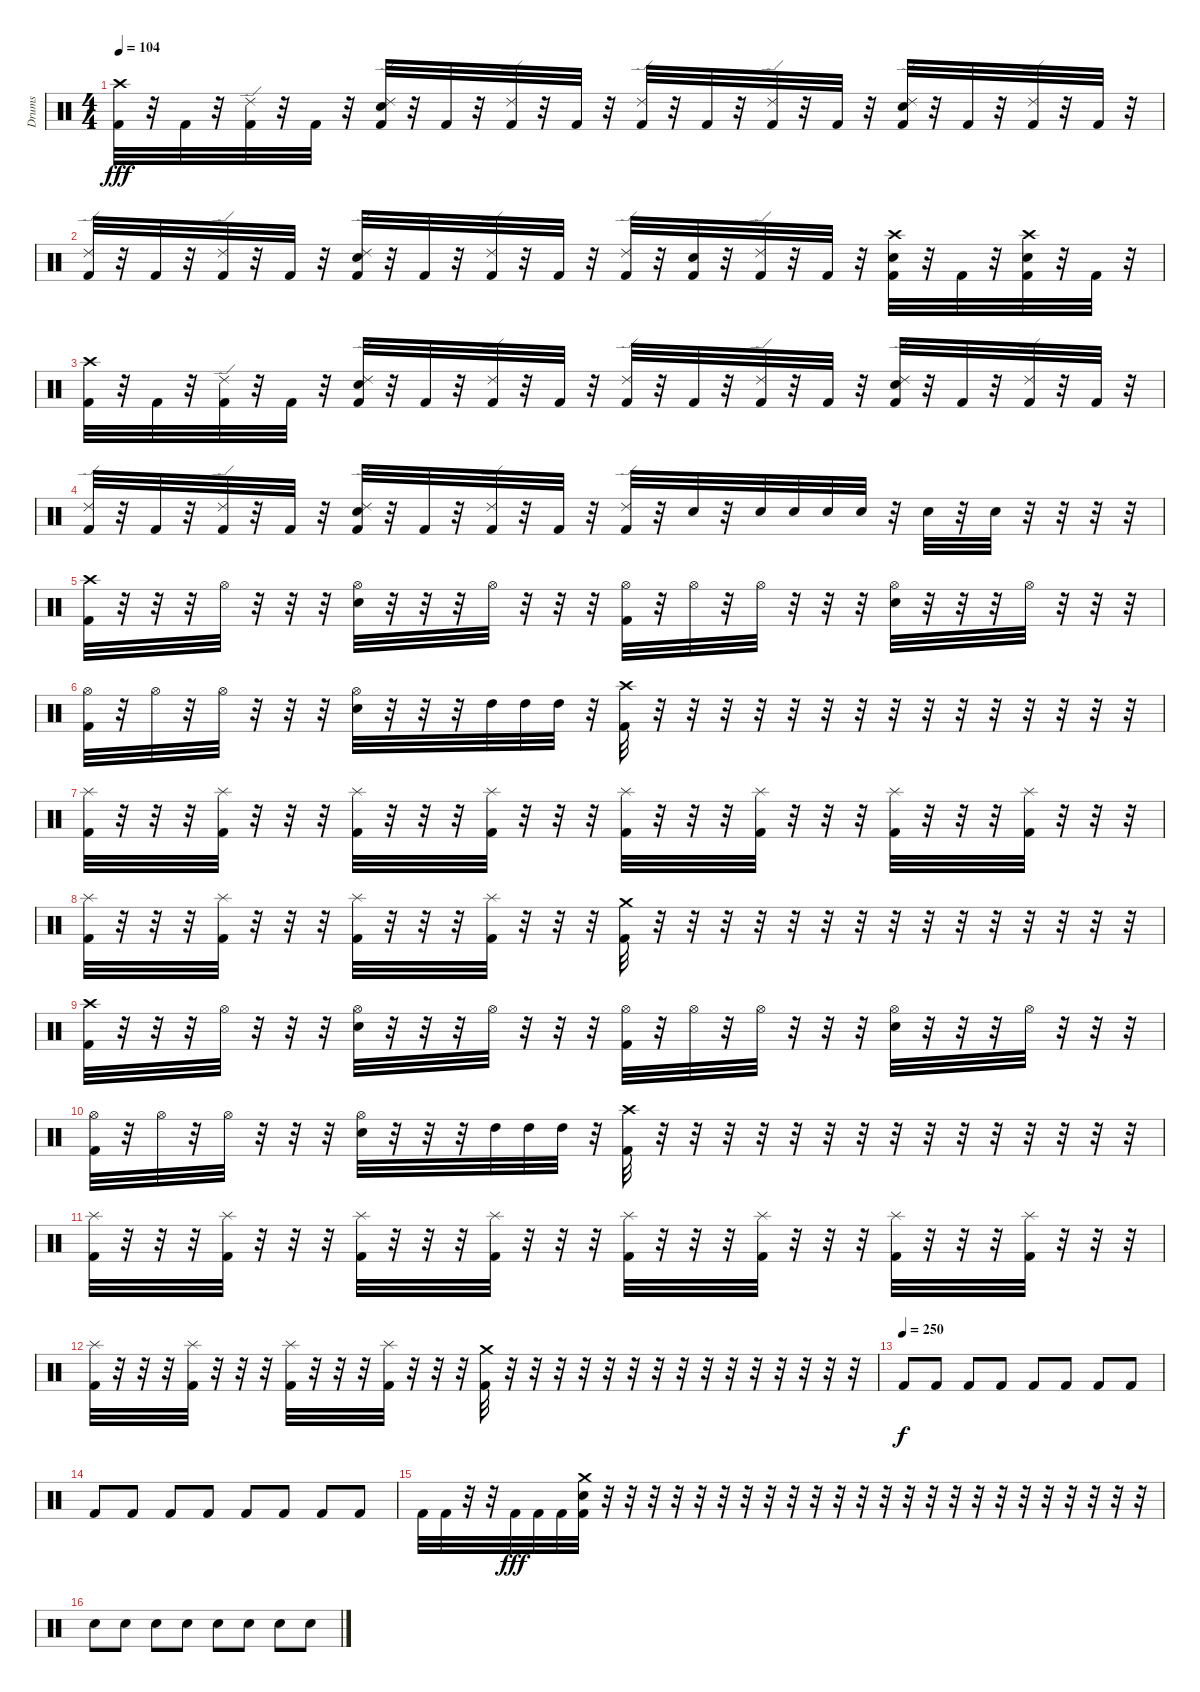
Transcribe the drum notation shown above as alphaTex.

\track ("Drums" "Drums") {instrument percussion}
\staff {score}
\articulation defaults
\ts (4 4)
\tempo 104
\clef neutral
\ks c
("Crash high (hit)" "Kick (hit) 2").32{dy fff} r.32 "Kick (hit) 2".32 r.32 ("Ride (edge) 2" "Kick (hit) 2").32 r.32 "Kick (hit) 2".32 r.32 ("Ride (edge) 2" "Snare (hit) 2" "Kick (hit) 2").32 r.32 "Kick (hit) 2".32 r.32 ("Ride (edge) 2" "Kick (hit) 2").32 r.32 "Kick (hit) 2".32 r.32 ("Ride (edge) 2" "Kick (hit) 2").32 r.32 "Kick (hit) 2".32 r.32 ("Ride (edge) 2" "Kick (hit) 2").32 r.32 "Kick (hit) 2".32 r.32 ("Ride (edge) 2" "Snare (hit) 2" "Kick (hit) 2").32 r.32 "Kick (hit) 2".32 r.32 ("Ride (edge) 2" "Kick (hit) 2").32 r.32 "Kick (hit) 2".32 r.32 |
("Ride (edge) 2" "Kick (hit) 2").32 r.32 "Kick (hit) 2".32 r.32 ("Ride (edge) 2" "Kick (hit) 2").32 r.32 "Kick (hit) 2".32 r.32 ("Ride (edge) 2" "Snare (hit) 2" "Kick (hit) 2").32 r.32 "Kick (hit) 2".32 r.32 ("Ride (edge) 2" "Kick (hit) 2").32 r.32 "Kick (hit) 2".32 r.32 ("Ride (edge) 2" "Kick (hit) 2").32 r.32 ("Snare (hit) 2" "Kick (hit) 2").32 r.32 ("Ride (edge) 2" "Kick (hit) 2").32 r.32 "Kick (hit) 2".32 r.32 ("Crash high (hit)" "Snare (hit) 2" "Kick (hit) 2").32 r.32 "Kick (hit) 2".32 r.32 ("Crash high (hit)" "Snare (hit) 2" "Kick (hit) 2").32 r.32 "Kick (hit) 2".32 r.32 |
("Crash high (hit)" "Kick (hit) 2").32 r.32 "Kick (hit) 2".32 r.32 ("Ride (edge) 2" "Kick (hit) 2").32 r.32 "Kick (hit) 2".32 r.32 ("Ride (edge) 2" "Snare (hit) 2" "Kick (hit) 2").32 r.32 "Kick (hit) 2".32 r.32 ("Ride (edge) 2" "Kick (hit) 2").32 r.32 "Kick (hit) 2".32 r.32 ("Ride (edge) 2" "Kick (hit) 2").32 r.32 "Kick (hit) 2".32 r.32 ("Ride (edge) 2" "Kick (hit) 2").32 r.32 "Kick (hit) 2".32 r.32 ("Ride (edge) 2" "Snare (hit) 2" "Kick (hit) 2").32 r.32 "Kick (hit) 2".32 r.32 ("Ride (edge) 2" "Kick (hit) 2").32 r.32 "Kick (hit) 2".32 r.32 |
("Ride (edge) 2" "Kick (hit) 2").32 r.32 "Kick (hit) 2".32 r.32 ("Ride (edge) 2" "Kick (hit) 2").32 r.32 "Kick (hit) 2".32 r.32 ("Ride (edge) 2" "Snare (hit) 2" "Kick (hit) 2").32 r.32 "Kick (hit) 2".32 r.32 ("Ride (edge) 2" "Kick (hit) 2").32 r.32 "Kick (hit) 2".32 r.32 ("Ride (edge) 2" "Kick (hit) 2").32 r.32 "Snare (hit) 2".32 r.32 "Snare (hit) 2".32 "Snare (hit) 2".32 "Snare (hit) 2".32 "Snare (hit) 2".32 r.32 "Snare (hit) 2".32 r.32 "Snare (hit) 2".32 r.32 r.32 r.32 r.32 |
("Crash high (hit)" "Kick (hit) 2").32 r.32 r.32 r.32 "Hi-Hat (open)".32 r.32 r.32 r.32 ("Hi-Hat (open)" "Snare (hit) 2").32 r.32 r.32 r.32 "Hi-Hat (open)".32 r.32 r.32 r.32 ("Hi-Hat (open)" "Kick (hit) 2").32 r.32 "Hi-Hat (open)".32 r.32 "Hi-Hat (open)".32 r.32 r.32 r.32 ("Hi-Hat (open)" "Snare (hit) 2").32 r.32 r.32 r.32 "Hi-Hat (open)".32 r.32 r.32 r.32 |
("Hi-Hat (open)" "Kick (hit) 2").32 r.32 "Hi-Hat (open)".32 r.32 "Hi-Hat (open)".32 r.32 r.32 r.32 ("Hi-Hat (open)" "Snare (hit) 2").32 r.32 r.32 r.32 "High Tom (hit)".32 "High Tom (hit)".32 "High Tom (hit)".32 r.32 ("Crash high (hit)" "Kick (hit) 2").32 r.32 r.32 r.32 r.32 r.32 r.32 r.32 r.32 r.32 r.32 r.32 r.32 r.32 r.32 r.32 |
("Splash (hit)" "Kick (hit) 2").32 r.32 r.32 r.32 ("Splash (hit)" "Kick (hit) 2").32 r.32 r.32 r.32 ("Splash (hit)" "Kick (hit) 2").32 r.32 r.32 r.32 ("Splash (hit)" "Kick (hit) 2").32 r.32 r.32 r.32 ("Splash (hit)" "Kick (hit) 2").32 r.32 r.32 r.32 ("Splash (hit)" "Kick (hit) 2").32 r.32 r.32 r.32 ("Splash (hit)" "Kick (hit) 2").32 r.32 r.32 r.32 ("Splash (hit)" "Kick (hit) 2").32 r.32 r.32 r.32 |
("Splash (hit)" "Kick (hit) 2").32 r.32 r.32 r.32 ("Splash (hit)" "Kick (hit) 2").32 r.32 r.32 r.32 ("Splash (hit)" "Kick (hit) 2").32 r.32 r.32 r.32 ("Splash (hit)" "Kick (hit) 2").32 r.32 r.32 r.32 ("Crash medium (hit)" "Kick (hit) 2").32 r.32 r.32 r.32 r.32 r.32 r.32 r.32 r.32 r.32 r.32 r.32 r.32 r.32 r.32 r.32 |
("Crash high (hit)" "Kick (hit) 2").32 r.32 r.32 r.32 "Hi-Hat (open)".32 r.32 r.32 r.32 ("Hi-Hat (open)" "Snare (hit) 2").32 r.32 r.32 r.32 "Hi-Hat (open)".32 r.32 r.32 r.32 ("Hi-Hat (open)" "Kick (hit) 2").32 r.32 "Hi-Hat (open)".32 r.32 "Hi-Hat (open)".32 r.32 r.32 r.32 ("Hi-Hat (open)" "Snare (hit) 2").32 r.32 r.32 r.32 "Hi-Hat (open)".32 r.32 r.32 r.32 |
("Hi-Hat (open)" "Kick (hit) 2").32 r.32 "Hi-Hat (open)".32 r.32 "Hi-Hat (open)".32 r.32 r.32 r.32 ("Hi-Hat (open)" "Snare (hit) 2").32 r.32 r.32 r.32 "High Tom (hit)".32 "High Tom (hit)".32 "High Tom (hit)".32 r.32 ("Crash high (hit)" "Kick (hit) 2").32 r.32 r.32 r.32 r.32 r.32 r.32 r.32 r.32 r.32 r.32 r.32 r.32 r.32 r.32 r.32 |
("Splash (hit)" "Kick (hit) 2").32 r.32 r.32 r.32 ("Splash (hit)" "Kick (hit) 2").32 r.32 r.32 r.32 ("Splash (hit)" "Kick (hit) 2").32 r.32 r.32 r.32 ("Splash (hit)" "Kick (hit) 2").32 r.32 r.32 r.32 ("Splash (hit)" "Kick (hit) 2").32 r.32 r.32 r.32 ("Splash (hit)" "Kick (hit) 2").32 r.32 r.32 r.32 ("Splash (hit)" "Kick (hit) 2").32 r.32 r.32 r.32 ("Splash (hit)" "Kick (hit) 2").32 r.32 r.32 r.32 |
("Splash (hit)" "Kick (hit) 2").32 r.32 r.32 r.32 ("Splash (hit)" "Kick (hit) 2").32 r.32 r.32 r.32 ("Splash (hit)" "Kick (hit) 2").32 r.32 r.32 r.32 ("Splash (hit)" "Kick (hit) 2").32 r.32 r.32 r.32 ("Crash medium (hit)" "Kick (hit) 2").32 r.32 r.32 r.32 r.32 r.32 r.32 r.32 r.32 r.32 r.32 r.32 r.32 r.32 r.32 r.32 |
\tempo (250)
"Kick (hit) 2".8{dy f} "Kick (hit) 2".8 "Kick (hit) 2".8 "Kick (hit) 2".8 "Kick (hit) 2".8 "Kick (hit) 2".8 "Kick (hit) 2".8 "Kick (hit) 2".8 |
"Kick (hit) 2".8 "Kick (hit) 2".8 "Kick (hit) 2".8 "Kick (hit) 2".8 "Kick (hit) 2".8 "Kick (hit) 2".8 "Kick (hit) 2".8 "Kick (hit) 2".8 |
"Kick (hit) 2".32 "Kick (hit) 2".32 r.32 r.32 "Kick (hit) 2".32{dy fff} "Kick (hit) 2".32 "Kick (hit) 2".32 ("Crash medium (hit)" "Snare (hit) 2" "Kick (hit) 2").32 r.32 r.32 r.32 r.32 r.32 r.32 r.32 r.32 r.32 r.32 r.32 r.32 r.32 r.32 r.32 r.32 r.32 r.32 r.32 r.32 r.32 r.32 r.32 r.32 |
"Snare (hit) 2".8 "Snare (hit) 2".8 "Snare (hit) 2".8 "Snare (hit) 2".8 "Snare (hit) 2".8 "Snare (hit) 2".8 "Snare (hit) 2".8 "Snare (hit) 2".8
